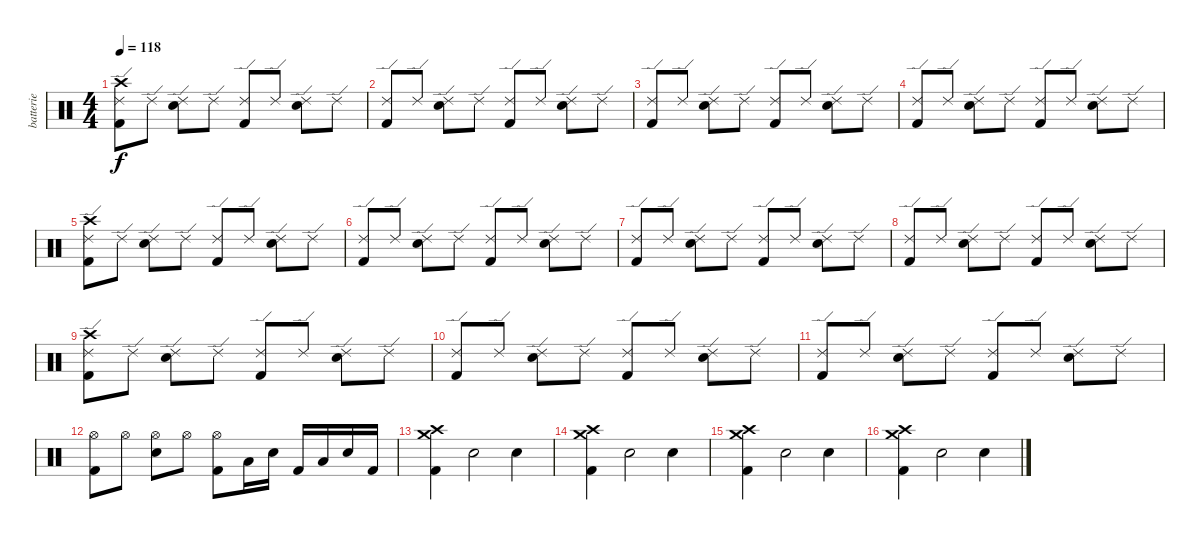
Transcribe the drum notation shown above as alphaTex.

\track ("batterie" "batterie") {instrument percussion}
\staff {score}
\articulation defaults
\ts (4 4)
\tempo 118
\clef neutral
\ks c
("Crash high (hit)" "Ride (edge) 2" "Kick (hit) 2").8{dy f} "Ride (edge) 2".8 ("Ride (edge) 2" "Electric Snare (hit)").8 "Ride (edge) 2".8 ("Ride (edge) 2" "Kick (hit) 2").8 "Ride (edge) 2".8 ("Ride (edge) 2" "Electric Snare (hit)").8 "Ride (edge) 2".8 |
("Ride (edge) 2" "Kick (hit) 2").8 "Ride (edge) 2".8 ("Ride (edge) 2" "Electric Snare (hit)").8 "Ride (edge) 2".8 ("Ride (edge) 2" "Kick (hit) 2").8 "Ride (edge) 2".8 ("Ride (edge) 2" "Electric Snare (hit)").8 "Ride (edge) 2".8 |
("Ride (edge) 2" "Kick (hit) 2").8 "Ride (edge) 2".8 ("Ride (edge) 2" "Electric Snare (hit)").8 "Ride (edge) 2".8 ("Ride (edge) 2" "Kick (hit) 2").8 "Ride (edge) 2".8 ("Ride (edge) 2" "Electric Snare (hit)").8 "Ride (edge) 2".8 |
("Ride (edge) 2" "Kick (hit) 2").8 "Ride (edge) 2".8 ("Ride (edge) 2" "Electric Snare (hit)").8 "Ride (edge) 2".8 ("Ride (edge) 2" "Kick (hit) 2").8 "Ride (edge) 2".8 ("Ride (edge) 2" "Electric Snare (hit)").8 "Ride (edge) 2".8 |
("Crash high (hit)" "Ride (edge) 2" "Kick (hit) 2").8 "Ride (edge) 2".8 ("Ride (edge) 2" "Electric Snare (hit)").8 "Ride (edge) 2".8 ("Ride (edge) 2" "Kick (hit) 2").8 "Ride (edge) 2".8 ("Ride (edge) 2" "Electric Snare (hit)").8 "Ride (edge) 2".8 |
("Ride (edge) 2" "Kick (hit) 2").8 "Ride (edge) 2".8 ("Ride (edge) 2" "Electric Snare (hit)").8 "Ride (edge) 2".8 ("Ride (edge) 2" "Kick (hit) 2").8 "Ride (edge) 2".8 ("Ride (edge) 2" "Electric Snare (hit)").8 "Ride (edge) 2".8 |
("Ride (edge) 2" "Kick (hit) 2").8 "Ride (edge) 2".8 ("Ride (edge) 2" "Electric Snare (hit)").8 "Ride (edge) 2".8 ("Ride (edge) 2" "Kick (hit) 2").8 "Ride (edge) 2".8 ("Ride (edge) 2" "Electric Snare (hit)").8 "Ride (edge) 2".8 |
("Ride (edge) 2" "Kick (hit) 2").8 "Ride (edge) 2".8 ("Ride (edge) 2" "Electric Snare (hit)").8 "Ride (edge) 2".8 ("Ride (edge) 2" "Kick (hit) 2").8 "Ride (edge) 2".8 ("Ride (edge) 2" "Electric Snare (hit)").8 "Ride (edge) 2".8 |
("Crash high (hit)" "Ride (edge) 2" "Kick (hit) 2").8 "Ride (edge) 2".8 ("Ride (edge) 2" "Electric Snare (hit)").8 "Ride (edge) 2".8 ("Ride (edge) 2" "Kick (hit) 2").8 "Ride (edge) 2".8 ("Ride (edge) 2" "Electric Snare (hit)").8 "Ride (edge) 2".8 |
("Ride (edge) 2" "Kick (hit) 2").8 "Ride (edge) 2".8 ("Ride (edge) 2" "Electric Snare (hit)").8 "Ride (edge) 2".8 ("Ride (edge) 2" "Kick (hit) 2").8 "Ride (edge) 2".8 ("Ride (edge) 2" "Electric Snare (hit)").8 "Ride (edge) 2".8 |
("Ride (edge) 2" "Kick (hit) 2").8 "Ride (edge) 2".8 ("Ride (edge) 2" "Electric Snare (hit)").8 "Ride (edge) 2".8 ("Ride (edge) 2" "Kick (hit) 2").8 "Ride (edge) 2".8 ("Ride (edge) 2" "Electric Snare (hit)").8 "Ride (edge) 2".8 |
("Hi-Hat (open)" "Kick (hit) 2").8 "Hi-Hat (open)".8 ("Hi-Hat (open)" "Electric Snare (hit)").8 "Hi-Hat (open)".8 ("Hi-Hat (open)" "Kick (hit) 2").8 "Low Tom (hit)".16 "Electric Snare (hit)".16 "Kick (hit) 2".16 "Low Tom (hit)".16 "Electric Snare (hit)".16 "Kick (hit) 2".16 |
("Crash high (hit)" "Crash medium (hit)" "Kick (hit) 2").4 "Electric Snare (hit)".2 "Electric Snare (hit)".4 |
("Crash high (hit)" "Crash medium (hit)" "Kick (hit) 2").4 "Electric Snare (hit)".2 "Electric Snare (hit)".4 |
("Crash high (hit)" "Crash medium (hit)" "Kick (hit) 2").4 "Electric Snare (hit)".2 "Electric Snare (hit)".4 |
("Crash high (hit)" "Crash medium (hit)" "Kick (hit) 2").4 "Electric Snare (hit)".2 "Electric Snare (hit)".4
